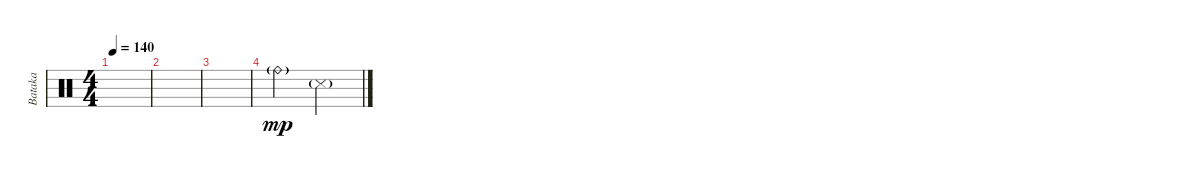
\track ("Bataka" "Bataka") {instrument percussion}
\staff {score}
\articulation defaults
\ts (4 4)
\tempo 140
\clef neutral
\ks c
|
|
|
"Ride (bell)"{g}.2{dy mp} "Snare (side stick) 3"{g}.2
